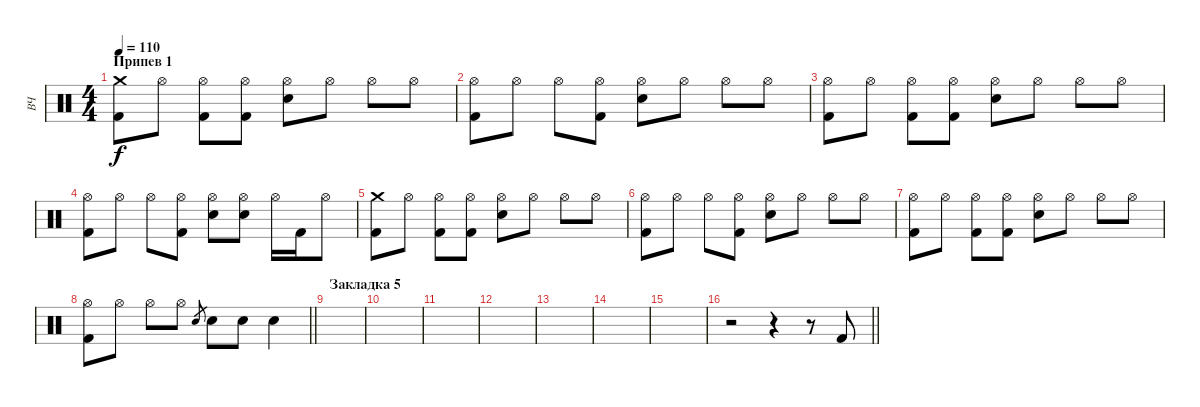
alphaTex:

\track ("ВЧ" "ВЧ") {instrument percussion}
\staff {score}
\articulation defaults
\ts (4 4)
\section ("" "Припев 1")
\tempo 110
\clef neutral
\ks c
("Crash medium (hit)" "Kick (hit) 2").8{dy f} "Hi-Hat (open)".8 ("Hi-Hat (open)" "Kick (hit) 2").8 ("Hi-Hat (open)" "Kick (hit) 2").8 ("Hi-Hat (open)" "Snare (hit) 2").8 "Hi-Hat (open)".8 "Hi-Hat (open)".8 "Hi-Hat (open)".8 |
("Hi-Hat (open)" "Kick (hit) 2").8 "Hi-Hat (open)".8 "Hi-Hat (open)".8 ("Hi-Hat (open)" "Kick (hit) 2").8 ("Hi-Hat (open)" "Snare (hit) 2").8 "Hi-Hat (open)".8 "Hi-Hat (open)".8 "Hi-Hat (open)".8 |
("Hi-Hat (open)" "Kick (hit) 2").8 "Hi-Hat (open)".8 ("Hi-Hat (open)" "Kick (hit) 2").8 ("Hi-Hat (open)" "Kick (hit) 2").8 ("Hi-Hat (open)" "Snare (hit) 2").8 "Hi-Hat (open)".8 "Hi-Hat (open)".8 "Hi-Hat (open)".8 |
("Hi-Hat (open)" "Kick (hit) 2").8 "Hi-Hat (open)".8 "Hi-Hat (open)".8 ("Hi-Hat (open)" "Kick (hit) 2").8 ("Hi-Hat (open)" "Snare (hit) 2").8 ("Hi-Hat (open)" "Snare (hit) 2").8 "Hi-Hat (open)".16 "Kick (hit) 2".16 "Hi-Hat (open)".8 |
("Crash medium (hit)" "Kick (hit) 2").8 "Hi-Hat (open)".8 ("Hi-Hat (open)" "Kick (hit) 2").8 ("Hi-Hat (open)" "Kick (hit) 2").8 ("Hi-Hat (open)" "Snare (hit) 2").8 "Hi-Hat (open)".8 "Hi-Hat (open)".8 "Hi-Hat (open)".8 |
("Hi-Hat (open)" "Kick (hit) 2").8 "Hi-Hat (open)".8 "Hi-Hat (open)".8 ("Hi-Hat (open)" "Kick (hit) 2").8 ("Hi-Hat (open)" "Snare (hit) 2").8 "Hi-Hat (open)".8 "Hi-Hat (open)".8 "Hi-Hat (open)".8 |
("Hi-Hat (open)" "Kick (hit) 2").8 "Hi-Hat (open)".8 ("Hi-Hat (open)" "Kick (hit) 2").8 ("Hi-Hat (open)" "Kick (hit) 2").8 ("Hi-Hat (open)" "Snare (hit) 2").8 "Hi-Hat (open)".8 "Hi-Hat (open)".8 "Hi-Hat (open)".8 |
\barLineRight lightlight
("Hi-Hat (open)" "Kick (hit) 2").8 "Hi-Hat (open)".8 "Hi-Hat (open)".8 "Hi-Hat (open)".8 "Snare (hit) 2".8{gr} "Snare (hit) 2".8 "Snare (hit) 2".8 "Snare (hit) 2".4 |
\section ("" "Закладка 5")
|
|
|
|
|
|
|
\barLineRight lightlight
r.2 r.4 r.8 "Kick (hit) 2".8
